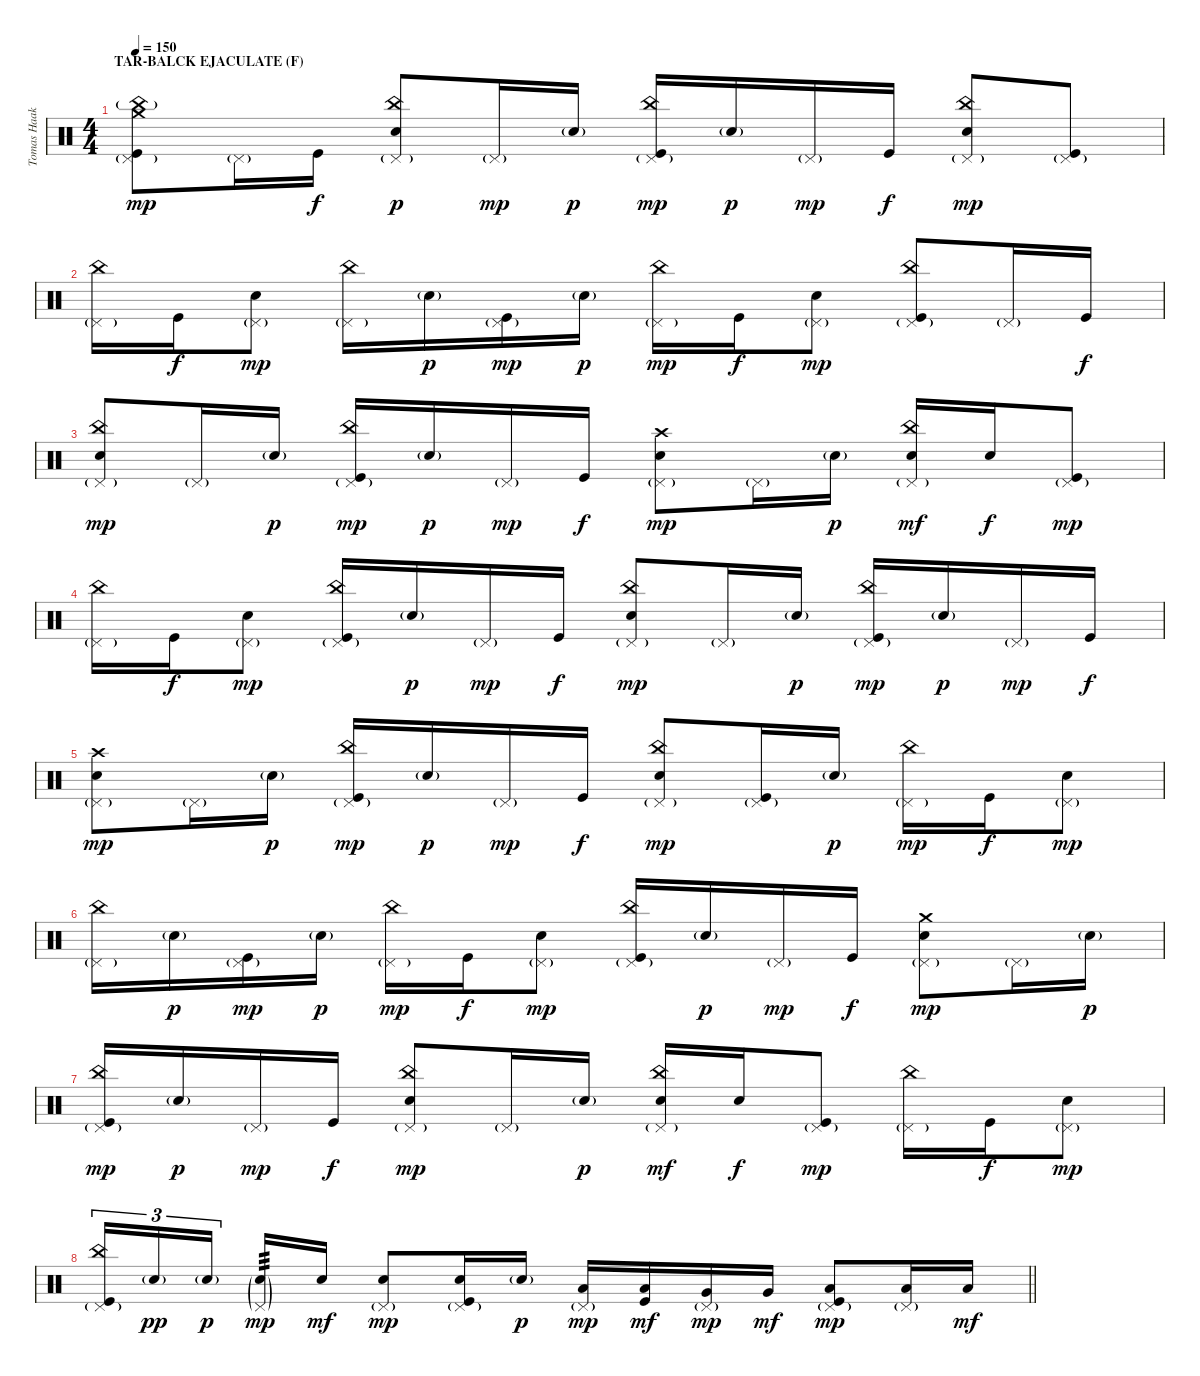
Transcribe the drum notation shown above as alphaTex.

\track ("Tomas Haake (Drums)" "Tomas Haak") {instrument percussion}
\staff {score}
\articulation defaults
\ts (4 4)
\section ("" "TAR-BALCK EJACULATE (F)")
\tempo 150
\clef neutral
\ks c
("Crash medium (hit)" "Pedal Hi-Hat (hit)"{g} "China (hit)"{g} "Kick (hit)").8{dy mp} "Pedal Hi-Hat (hit)"{g}.16 "Kick (hit)".16{dy f} ("China (hit)" "Pedal Hi-Hat (hit)"{g} "Electric Snare (hit)").8{dy p} "Pedal Hi-Hat (hit)"{g}.16{dy mp} "Electric Snare (hit)"{g}.16{dy p} ("China (hit)" "Pedal Hi-Hat (hit)"{g} "Kick (hit)").16{dy mp} "Electric Snare (hit)"{g}.16{dy p} "Pedal Hi-Hat (hit)"{g}.16{dy mp} "Kick (hit)".16{dy f} ("China (hit)" "Pedal Hi-Hat (hit)"{g} "Electric Snare (hit)").8{dy mp} ("Pedal Hi-Hat (hit)"{g} "Kick (hit)").8 |
("China (hit)" "Pedal Hi-Hat (hit)"{g}).16 "Kick (hit)".16{dy f} ("Pedal Hi-Hat (hit)"{g} "Electric Snare (hit)").8{dy mp} ("China (hit)" "Pedal Hi-Hat (hit)"{g}).16 "Electric Snare (hit)"{g}.16{dy p} ("Pedal Hi-Hat (hit)"{g} "Kick (hit)").16{dy mp} "Electric Snare (hit)"{g}.16{dy p} ("China (hit)" "Pedal Hi-Hat (hit)"{g}).16{dy mp} "Kick (hit)".16{dy f} ("Pedal Hi-Hat (hit)"{g} "Electric Snare (hit)").8{dy mp} ("China (hit)" "Pedal Hi-Hat (hit)"{g} "Kick (hit)").8 "Pedal Hi-Hat (hit)"{g}.16 "Kick (hit)".16{dy f} |
("China (hit)" "Pedal Hi-Hat (hit)"{g} "Electric Snare (hit)").8{dy mp} "Pedal Hi-Hat (hit)"{g}.16 "Electric Snare (hit)"{g}.16{dy p} ("China (hit)" "Pedal Hi-Hat (hit)"{g} "Kick (hit)").16{dy mp} "Electric Snare (hit)"{g}.16{dy p} "Pedal Hi-Hat (hit)"{g}.16{dy mp} "Kick (hit)".16{dy f} ("Crash high (hit)" "Pedal Hi-Hat (hit)"{g} "Electric Snare (hit)").8{dy mp} "Pedal Hi-Hat (hit)"{g}.16 "Electric Snare (hit)"{g}.16{dy p} ("China (hit)" "Pedal Hi-Hat (hit)"{g} "Electric Snare (hit)").16{dy mf} "Electric Snare (hit)".16{dy f} ("Pedal Hi-Hat (hit)"{g} "Kick (hit)").8{dy mp} |
("China (hit)" "Pedal Hi-Hat (hit)"{g}).16 "Kick (hit)".16{dy f} ("Pedal Hi-Hat (hit)"{g} "Electric Snare (hit)").8{dy mp} ("China (hit)" "Pedal Hi-Hat (hit)"{g} "Kick (hit)").16 "Electric Snare (hit)"{g}.16{dy p} "Pedal Hi-Hat (hit)"{g}.16{dy mp} "Kick (hit)".16{dy f} ("China (hit)" "Pedal Hi-Hat (hit)"{g} "Electric Snare (hit)").8{dy mp} "Pedal Hi-Hat (hit)"{g}.16 "Electric Snare (hit)"{g}.16{dy p} ("China (hit)" "Pedal Hi-Hat (hit)"{g} "Kick (hit)").16{dy mp} "Electric Snare (hit)"{g}.16{dy p} "Pedal Hi-Hat (hit)"{g}.16{dy mp} "Kick (hit)".16{dy f} |
("Crash high (hit)" "Pedal Hi-Hat (hit)"{g} "Electric Snare (hit)").8{dy mp} "Pedal Hi-Hat (hit)"{g}.16 "Electric Snare (hit)"{g}.16{dy p} ("China (hit)" "Pedal Hi-Hat (hit)"{g} "Kick (hit)").16{dy mp} "Electric Snare (hit)"{g}.16{dy p} "Pedal Hi-Hat (hit)"{g}.16{dy mp} "Kick (hit)".16{dy f} ("China (hit)" "Pedal Hi-Hat (hit)"{g} "Electric Snare (hit)").8{dy mp} ("Pedal Hi-Hat (hit)"{g} "Kick (hit)").16 "Electric Snare (hit)"{g}.16{dy p} ("China (hit)" "Pedal Hi-Hat (hit)"{g}).16{dy mp} "Kick (hit)".16{dy f} ("Pedal Hi-Hat (hit)"{g} "Electric Snare (hit)").8{dy mp} |
("China (hit)" "Pedal Hi-Hat (hit)"{g}).16 "Electric Snare (hit)"{g}.16{dy p} ("Pedal Hi-Hat (hit)"{g} "Kick (hit)").16{dy mp} "Electric Snare (hit)"{g}.16{dy p} ("China (hit)" "Pedal Hi-Hat (hit)"{g}).16{dy mp} "Kick (hit)".16{dy f} ("Pedal Hi-Hat (hit)"{g} "Electric Snare (hit)").8{dy mp} ("China (hit)" "Pedal Hi-Hat (hit)"{g} "Kick (hit)").16 "Electric Snare (hit)"{g}.16{dy p} "Pedal Hi-Hat (hit)"{g}.16{dy mp} "Kick (hit)".16{dy f} ("Crash medium (hit)" "Pedal Hi-Hat (hit)"{g} "Electric Snare (hit)").8{dy mp} "Pedal Hi-Hat (hit)"{g}.16 "Electric Snare (hit)"{g}.16{dy p} |
("China (hit)" "Pedal Hi-Hat (hit)"{g} "Kick (hit)").16{dy mp} "Electric Snare (hit)"{g}.16{dy p} "Pedal Hi-Hat (hit)"{g}.16{dy mp} "Kick (hit)".16{dy f} ("China (hit)" "Pedal Hi-Hat (hit)"{g} "Electric Snare (hit)").8{dy mp} "Pedal Hi-Hat (hit)"{g}.16 "Electric Snare (hit)"{g}.16{dy p} ("China (hit)" "Pedal Hi-Hat (hit)"{g} "Electric Snare (hit)").16{dy mf} "Electric Snare (hit)".16{dy f} ("Pedal Hi-Hat (hit)"{g} "Kick (hit)").8{dy mp} ("China (hit)" "Pedal Hi-Hat (hit)"{g}).16 "Kick (hit)".16{dy f} ("Pedal Hi-Hat (hit)"{g} "Electric Snare (hit)").8{dy mp} |
\barLineRight lightlight
("China (hit)" "Pedal Hi-Hat (hit)"{g} "Kick (hit)").16{tu (3 2)} "Electric Snare (hit)"{g}.16{tu (3 2) dy pp} "Electric Snare (hit)"{g}.16{tu (3 2) dy p beam splitsecondary} ("Pedal Hi-Hat (hit)"{g} "Electric Snare (hit)"{g}).16{tp 3 dy mp} "Electric Snare (hit)".16{dy mf} ("Pedal Hi-Hat (hit)"{g} "Electric Snare (hit)").8{dy mp} ("Pedal Hi-Hat (hit)"{g} "Electric Snare (hit)" "Kick (hit)").16 "Electric Snare (hit)"{g}.16{dy p} ("Pedal Hi-Hat (hit)"{g} "Low Tom (hit)").16{dy mp} ("Low Tom (hit)" "Kick (hit)").16{dy mf} ("Pedal Hi-Hat (hit)"{g} "Very Low Tom (hit)").16{dy mp} "Very Low Tom (hit)".16{dy mf} ("Pedal Hi-Hat (hit)"{g} "Low Floor Tom (hit)" "Kick (hit)").8{dy mp} ("Pedal Hi-Hat (hit)"{g} "Low Floor Tom (hit)").16 "Low Floor Tom (hit)".16{dy mf}
